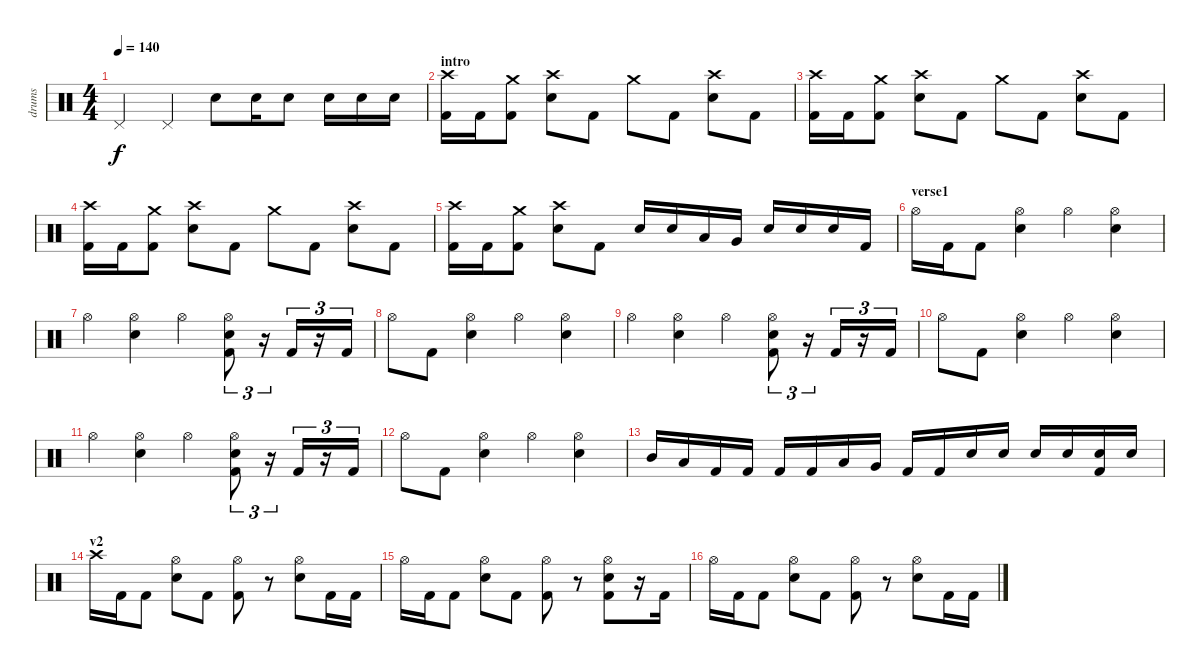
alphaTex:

\track ("drums" "drums") {instrument percussion}
\staff {score}
\articulation defaults
\ts (4 4)
\tempo 140
\clef neutral
\ks c "Pedal Hi-Hat (hit)".4{dy f} "Pedal Hi-Hat (hit)".4 "Electric Snare (hit)".8 "Electric Snare (hit)".16 "Electric Snare (hit)".8 "Electric Snare (hit)".16 "Electric Snare (hit)".16 "Electric Snare (hit)".16
|
\section ("" "intro")
("Crash high (hit)" "Kick (hit) 2").16 "Kick (hit) 2".16 ("Crash medium (hit)" "Kick (hit) 2").8 ("Crash high (hit)" "Electric Snare (hit)").8 "Kick (hit) 2".8 "Crash medium (hit)".8 "Kick (hit) 2".8 ("Crash high (hit)" "Electric Snare (hit)").8 "Kick (hit) 2".8 |
("Crash high (hit)" "Kick (hit) 2").16 "Kick (hit) 2".16 ("Crash medium (hit)" "Kick (hit) 2").8 ("Crash high (hit)" "Electric Snare (hit)").8 "Kick (hit) 2".8 "Crash medium (hit)".8 "Kick (hit) 2".8 ("Crash high (hit)" "Electric Snare (hit)").8 "Kick (hit) 2".8 |
("Crash high (hit)" "Kick (hit) 2").16 "Kick (hit) 2".16 ("Crash medium (hit)" "Kick (hit) 2").8 ("Crash high (hit)" "Electric Snare (hit)").8 "Kick (hit) 2".8 "Crash medium (hit)".8 "Kick (hit) 2".8 ("Crash high (hit)" "Electric Snare (hit)").8 "Kick (hit) 2".8 |
("Crash high (hit)" "Kick (hit) 2").16 "Kick (hit) 2".16 ("Crash medium (hit)" "Kick (hit) 2").8 ("Crash high (hit)" "Electric Snare (hit)").8 "Kick (hit) 2".8 "Electric Snare (hit)".16 "Electric Snare (hit)".16 "Low Tom (hit)".16 "Very Low Tom (hit)".16 "Electric Snare (hit)".16 "Electric Snare (hit)".16 "Electric Snare (hit)".16 "Kick (hit) 2".16 |
\section ("" "verse1")
"Hi-Hat (open)".16 "Kick (hit) 2".16 "Kick (hit) 2".8 ("Hi-Hat (open)" "Electric Snare (hit)").4 "Hi-Hat (open)".4 ("Hi-Hat (open)" "Electric Snare (hit)").4 |
"Hi-Hat (open)".4 ("Hi-Hat (open)" "Electric Snare (hit)").4 "Hi-Hat (open)".4 ("Hi-Hat (open)" "Electric Snare (hit)" "Kick (hit) 2").8{tu (3 2)} r.16{tu (3 2)} "Kick (hit) 2".16{tu (3 2)} r.16{tu (3 2)} "Kick (hit) 2".16{tu (3 2)} |
"Hi-Hat (open)".8 "Kick (hit) 2".8 ("Hi-Hat (open)" "Electric Snare (hit)").4 "Hi-Hat (open)".4 ("Hi-Hat (open)" "Electric Snare (hit)").4 |
"Hi-Hat (open)".4 ("Hi-Hat (open)" "Electric Snare (hit)").4 "Hi-Hat (open)".4 ("Hi-Hat (open)" "Electric Snare (hit)" "Kick (hit) 2").8{tu (3 2)} r.16{tu (3 2)} "Kick (hit) 2".16{tu (3 2)} r.16{tu (3 2)} "Kick (hit) 2".16{tu (3 2)} |
"Hi-Hat (open)".8 "Kick (hit) 2".8 ("Hi-Hat (open)" "Electric Snare (hit)").4 "Hi-Hat (open)".4 ("Hi-Hat (open)" "Electric Snare (hit)").4 |
"Hi-Hat (open)".4 ("Hi-Hat (open)" "Electric Snare (hit)").4 "Hi-Hat (open)".4 ("Hi-Hat (open)" "Electric Snare (hit)" "Kick (hit) 2").8{tu (3 2)} r.16{tu (3 2)} "Kick (hit) 2".16{tu (3 2)} r.16{tu (3 2)} "Kick (hit) 2".16{tu (3 2)} |
"Hi-Hat (open)".8 "Kick (hit) 2".8 ("Hi-Hat (open)" "Electric Snare (hit)").4 "Hi-Hat (open)".4 ("Hi-Hat (open)" "Electric Snare (hit)").4 |
"Mid Tom (hit)".16 "Low Tom (hit)".16 "Kick (hit) 2".16 "Kick (hit) 2".16 "Kick (hit) 2".16 "Kick (hit) 2".16 "Low Tom (hit)".16 "Very Low Tom (hit)".16 "Kick (hit) 2".16 "Kick (hit) 2".16 "Electric Snare (hit)".16 "Electric Snare (hit)".16 "Electric Snare (hit)".16 "Electric Snare (hit)".16 ("Electric Snare (hit)" "Kick (hit) 2").16 "Electric Snare (hit)".16 |
\section ("" "v2")
"Crash high (hit)".16 "Kick (hit) 2".16 "Kick (hit) 2".8 ("Hi-Hat (open)" "Electric Snare (hit)").8 "Kick (hit) 2".8 ("Hi-Hat (open)" "Kick (hit) 2").8 r.8 ("Hi-Hat (open)" "Electric Snare (hit)").8 "Kick (hit) 2".16 "Kick (hit) 2".16 |
"Hi-Hat (open)".16 "Kick (hit) 2".16 "Kick (hit) 2".8 ("Hi-Hat (open)" "Electric Snare (hit)").8 "Kick (hit) 2".8 ("Hi-Hat (open)" "Kick (hit) 2").8 r.8 ("Hi-Hat (open)" "Electric Snare (hit)" "Kick (hit) 2").8 r.16 "Kick (hit) 2".16 |
"Hi-Hat (open)".16 "Kick (hit) 2".16 "Kick (hit) 2".8 ("Hi-Hat (open)" "Electric Snare (hit)").8 "Kick (hit) 2".8 ("Hi-Hat (open)" "Kick (hit) 2").8 r.8 ("Hi-Hat (open)" "Electric Snare (hit)").8 "Kick (hit) 2".16 "Kick (hit) 2".16
